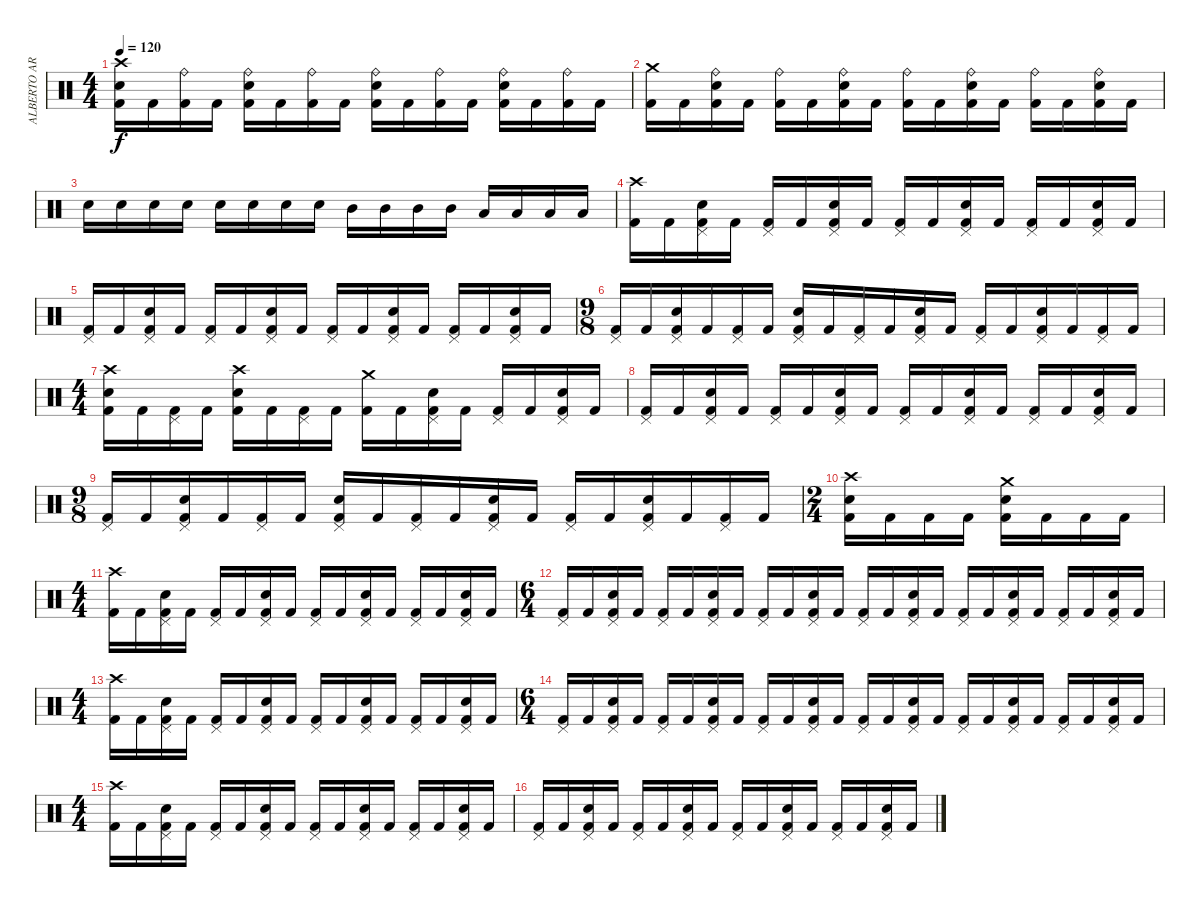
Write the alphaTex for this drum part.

\track ("ALBERTO ARDINES" "ALBERTO AR") {instrument percussion}
\staff {score}
\articulation defaults
\ts (4 4)
\tempo 120
\clef neutral
\ks c
("Crash high (hit)" "Electric Snare (hit)" "Kick (hit) 2").16{dy f} "Kick (hit) 2".16 ("Ride (bell)" "Kick (hit) 2").16 "Kick (hit) 2".16 ("Ride (bell)" "Electric Snare (hit)" "Kick (hit) 2").16 "Kick (hit) 2".16 ("Ride (bell)" "Kick (hit) 2").16 "Kick (hit) 2".16 ("Ride (bell)" "Electric Snare (hit)" "Kick (hit) 2").16 "Kick (hit) 2".16 ("Ride (bell)" "Kick (hit) 2").16 "Kick (hit) 2".16 ("Ride (bell)" "Electric Snare (hit)" "Kick (hit) 2").16 "Kick (hit) 2".16 ("Ride (bell)" "Kick (hit) 2").16 "Kick (hit) 2".16 |
("Crash medium (hit)" "Kick (hit) 2").16 "Kick (hit) 2".16 ("Ride (bell)" "Electric Snare (hit)" "Kick (hit) 2").16 "Kick (hit) 2".16 ("Ride (bell)" "Kick (hit) 2").16 "Kick (hit) 2".16 ("Ride (bell)" "Electric Snare (hit)" "Kick (hit) 2").16 "Kick (hit) 2".16 ("Ride (bell)" "Kick (hit) 2").16 "Kick (hit) 2".16 ("Ride (bell)" "Electric Snare (hit)" "Kick (hit) 2").16 "Kick (hit) 2".16 ("Ride (bell)" "Kick (hit) 2").16 "Kick (hit) 2".16 ("Ride (bell)" "Electric Snare (hit)" "Kick (hit) 2").16 "Kick (hit) 2".16 |
"Electric Snare (hit)".16 "Electric Snare (hit)".16 "Electric Snare (hit)".16 "Electric Snare (hit)".16 "Electric Snare (hit)".16 "Electric Snare (hit)".16 "Electric Snare (hit)".16 "Electric Snare (hit)".16 "Mid Tom (hit)".16 "Mid Tom (hit)".16 "Mid Tom (hit)".16 "Mid Tom (hit)".16 "Low Tom (hit)".16 "Low Tom (hit)".16 "Low Tom (hit)".16 "Low Tom (hit)".16 |
("Crash high (hit)" "Kick (hit) 2").16 "Kick (hit) 2".16 ("Pedal Hi-Hat (hit)" "Electric Snare (hit)" "Kick (hit) 2").16 "Kick (hit) 2".16 ("Pedal Hi-Hat (hit)" "Kick (hit) 2").16 "Kick (hit) 2".16 ("Pedal Hi-Hat (hit)" "Electric Snare (hit)" "Kick (hit) 2").16 "Kick (hit) 2".16 ("Pedal Hi-Hat (hit)" "Kick (hit) 2").16 "Kick (hit) 2".16 ("Pedal Hi-Hat (hit)" "Electric Snare (hit)" "Kick (hit) 2").16 "Kick (hit) 2".16 ("Pedal Hi-Hat (hit)" "Kick (hit) 2").16 "Kick (hit) 2".16 ("Pedal Hi-Hat (hit)" "Electric Snare (hit)" "Kick (hit) 2").16 "Kick (hit) 2".16 |
("Pedal Hi-Hat (hit)" "Kick (hit) 2").16 "Kick (hit) 2".16 ("Pedal Hi-Hat (hit)" "Electric Snare (hit)" "Kick (hit) 2").16 "Kick (hit) 2".16 ("Pedal Hi-Hat (hit)" "Kick (hit) 2").16 "Kick (hit) 2".16 ("Pedal Hi-Hat (hit)" "Electric Snare (hit)" "Kick (hit) 2").16 "Kick (hit) 2".16 ("Pedal Hi-Hat (hit)" "Kick (hit) 2").16 "Kick (hit) 2".16 ("Pedal Hi-Hat (hit)" "Electric Snare (hit)" "Kick (hit) 2").16 "Kick (hit) 2".16 ("Pedal Hi-Hat (hit)" "Kick (hit) 2").16 "Kick (hit) 2".16 ("Pedal Hi-Hat (hit)" "Electric Snare (hit)" "Kick (hit) 2").16 "Kick (hit) 2".16 |
\ts (9 8)
("Pedal Hi-Hat (hit)" "Kick (hit) 2").16 "Kick (hit) 2".16 ("Pedal Hi-Hat (hit)" "Electric Snare (hit)" "Kick (hit) 2").16 "Kick (hit) 2".16 ("Pedal Hi-Hat (hit)" "Kick (hit) 2").16 "Kick (hit) 2".16 ("Pedal Hi-Hat (hit)" "Electric Snare (hit)" "Kick (hit) 2").16 "Kick (hit) 2".16 ("Pedal Hi-Hat (hit)" "Kick (hit) 2").16 "Kick (hit) 2".16 ("Pedal Hi-Hat (hit)" "Electric Snare (hit)" "Kick (hit) 2").16 "Kick (hit) 2".16 ("Pedal Hi-Hat (hit)" "Kick (hit) 2").16 "Kick (hit) 2".16 ("Pedal Hi-Hat (hit)" "Electric Snare (hit)" "Kick (hit) 2").16 "Kick (hit) 2".16 ("Pedal Hi-Hat (hit)" "Kick (hit) 2").16 "Kick (hit) 2".16 |
\ts (4 4)
("Crash high (hit)" "Electric Snare (hit)" "Kick (hit) 2").16 "Kick (hit) 2".16 ("Pedal Hi-Hat (hit)" "Kick (hit) 2").16 "Kick (hit) 2".16 ("Crash high (hit)" "Electric Snare (hit)" "Kick (hit) 2").16 "Kick (hit) 2".16 ("Pedal Hi-Hat (hit)" "Kick (hit) 2").16 "Kick (hit) 2".16 ("Crash medium (hit)" "Kick (hit) 2").16 "Kick (hit) 2".16 ("Pedal Hi-Hat (hit)" "Electric Snare (hit)" "Kick (hit) 2").16 "Kick (hit) 2".16 ("Pedal Hi-Hat (hit)" "Kick (hit) 2").16 "Kick (hit) 2".16 ("Pedal Hi-Hat (hit)" "Electric Snare (hit)" "Kick (hit) 2").16 "Kick (hit) 2".16 |
("Pedal Hi-Hat (hit)" "Kick (hit) 2").16 "Kick (hit) 2".16 ("Pedal Hi-Hat (hit)" "Electric Snare (hit)" "Kick (hit) 2").16 "Kick (hit) 2".16 ("Pedal Hi-Hat (hit)" "Kick (hit) 2").16 "Kick (hit) 2".16 ("Pedal Hi-Hat (hit)" "Electric Snare (hit)" "Kick (hit) 2").16 "Kick (hit) 2".16 ("Pedal Hi-Hat (hit)" "Kick (hit) 2").16 "Kick (hit) 2".16 ("Pedal Hi-Hat (hit)" "Electric Snare (hit)" "Kick (hit) 2").16 "Kick (hit) 2".16 ("Pedal Hi-Hat (hit)" "Kick (hit) 2").16 "Kick (hit) 2".16 ("Pedal Hi-Hat (hit)" "Electric Snare (hit)" "Kick (hit) 2").16 "Kick (hit) 2".16 |
\ts (9 8)
("Pedal Hi-Hat (hit)" "Kick (hit) 2").16 "Kick (hit) 2".16 ("Pedal Hi-Hat (hit)" "Electric Snare (hit)" "Kick (hit) 2").16 "Kick (hit) 2".16 ("Pedal Hi-Hat (hit)" "Kick (hit) 2").16 "Kick (hit) 2".16 ("Pedal Hi-Hat (hit)" "Electric Snare (hit)" "Kick (hit) 2").16 "Kick (hit) 2".16 ("Pedal Hi-Hat (hit)" "Kick (hit) 2").16 "Kick (hit) 2".16 ("Pedal Hi-Hat (hit)" "Electric Snare (hit)" "Kick (hit) 2").16 "Kick (hit) 2".16 ("Pedal Hi-Hat (hit)" "Kick (hit) 2").16 "Kick (hit) 2".16 ("Pedal Hi-Hat (hit)" "Electric Snare (hit)" "Kick (hit) 2").16 "Kick (hit) 2".16 ("Pedal Hi-Hat (hit)" "Kick (hit) 2").16 "Kick (hit) 2".16 |
\ts (2 4)
("Crash high (hit)" "Electric Snare (hit)" "Kick (hit) 2").16 "Kick (hit) 2".16 "Kick (hit) 2".16 "Kick (hit) 2".16 ("Crash medium (hit)" "Electric Snare (hit)" "Kick (hit) 2").16 "Kick (hit) 2".16 "Kick (hit) 2".16 "Kick (hit) 2".16 |
\ts (4 4)
("Crash high (hit)" "Kick (hit) 2").16 "Kick (hit) 2".16 ("Pedal Hi-Hat (hit)" "Electric Snare (hit)" "Kick (hit) 2").16 "Kick (hit) 2".16 ("Pedal Hi-Hat (hit)" "Kick (hit) 2").16 "Kick (hit) 2".16 ("Pedal Hi-Hat (hit)" "Electric Snare (hit)" "Kick (hit) 2").16 "Kick (hit) 2".16 ("Pedal Hi-Hat (hit)" "Kick (hit) 2").16 "Kick (hit) 2".16 ("Pedal Hi-Hat (hit)" "Electric Snare (hit)" "Kick (hit) 2").16 "Kick (hit) 2".16 ("Pedal Hi-Hat (hit)" "Kick (hit) 2").16 "Kick (hit) 2".16 ("Pedal Hi-Hat (hit)" "Electric Snare (hit)" "Kick (hit) 2").16 "Kick (hit) 2".16 |
\ts (6 4)
("Pedal Hi-Hat (hit)" "Kick (hit) 2").16 "Kick (hit) 2".16 ("Pedal Hi-Hat (hit)" "Electric Snare (hit)" "Kick (hit) 2").16 "Kick (hit) 2".16 ("Pedal Hi-Hat (hit)" "Kick (hit) 2").16 "Kick (hit) 2".16 ("Pedal Hi-Hat (hit)" "Electric Snare (hit)" "Kick (hit) 2").16 "Kick (hit) 2".16 ("Pedal Hi-Hat (hit)" "Kick (hit) 2").16 "Kick (hit) 2".16 ("Pedal Hi-Hat (hit)" "Electric Snare (hit)" "Kick (hit) 2").16 "Kick (hit) 2".16 ("Pedal Hi-Hat (hit)" "Kick (hit) 2").16 "Kick (hit) 2".16 ("Pedal Hi-Hat (hit)" "Electric Snare (hit)" "Kick (hit) 2").16 "Kick (hit) 2".16 ("Pedal Hi-Hat (hit)" "Kick (hit) 2").16 "Kick (hit) 2".16 ("Pedal Hi-Hat (hit)" "Electric Snare (hit)" "Kick (hit) 2").16 "Kick (hit) 2".16 ("Pedal Hi-Hat (hit)" "Kick (hit) 2").16 "Kick (hit) 2".16 ("Pedal Hi-Hat (hit)" "Electric Snare (hit)" "Kick (hit) 2").16 "Kick (hit) 2".16 |
\ts (4 4)
("Crash high (hit)" "Kick (hit) 2").16 "Kick (hit) 2".16 ("Pedal Hi-Hat (hit)" "Electric Snare (hit)" "Kick (hit) 2").16 "Kick (hit) 2".16 ("Pedal Hi-Hat (hit)" "Kick (hit) 2").16 "Kick (hit) 2".16 ("Pedal Hi-Hat (hit)" "Electric Snare (hit)" "Kick (hit) 2").16 "Kick (hit) 2".16 ("Pedal Hi-Hat (hit)" "Kick (hit) 2").16 "Kick (hit) 2".16 ("Pedal Hi-Hat (hit)" "Electric Snare (hit)" "Kick (hit) 2").16 "Kick (hit) 2".16 ("Pedal Hi-Hat (hit)" "Kick (hit) 2").16 "Kick (hit) 2".16 ("Pedal Hi-Hat (hit)" "Electric Snare (hit)" "Kick (hit) 2").16 "Kick (hit) 2".16 |
\ts (6 4)
("Pedal Hi-Hat (hit)" "Kick (hit) 2").16 "Kick (hit) 2".16 ("Pedal Hi-Hat (hit)" "Electric Snare (hit)" "Kick (hit) 2").16 "Kick (hit) 2".16 ("Pedal Hi-Hat (hit)" "Kick (hit) 2").16 "Kick (hit) 2".16 ("Pedal Hi-Hat (hit)" "Electric Snare (hit)" "Kick (hit) 2").16 "Kick (hit) 2".16 ("Pedal Hi-Hat (hit)" "Kick (hit) 2").16 "Kick (hit) 2".16 ("Pedal Hi-Hat (hit)" "Electric Snare (hit)" "Kick (hit) 2").16 "Kick (hit) 2".16 ("Pedal Hi-Hat (hit)" "Kick (hit) 2").16 "Kick (hit) 2".16 ("Pedal Hi-Hat (hit)" "Electric Snare (hit)" "Kick (hit) 2").16 "Kick (hit) 2".16 ("Pedal Hi-Hat (hit)" "Kick (hit) 2").16 "Kick (hit) 2".16 ("Pedal Hi-Hat (hit)" "Electric Snare (hit)" "Kick (hit) 2").16 "Kick (hit) 2".16 ("Pedal Hi-Hat (hit)" "Kick (hit) 2").16 "Kick (hit) 2".16 ("Pedal Hi-Hat (hit)" "Electric Snare (hit)" "Kick (hit) 2").16 "Kick (hit) 2".16 |
\ts (4 4)
("Crash high (hit)" "Kick (hit) 2").16 "Kick (hit) 2".16 ("Pedal Hi-Hat (hit)" "Electric Snare (hit)" "Kick (hit) 2").16 "Kick (hit) 2".16 ("Pedal Hi-Hat (hit)" "Kick (hit) 2").16 "Kick (hit) 2".16 ("Pedal Hi-Hat (hit)" "Electric Snare (hit)" "Kick (hit) 2").16 "Kick (hit) 2".16 ("Pedal Hi-Hat (hit)" "Kick (hit) 2").16 "Kick (hit) 2".16 ("Pedal Hi-Hat (hit)" "Electric Snare (hit)" "Kick (hit) 2").16 "Kick (hit) 2".16 ("Pedal Hi-Hat (hit)" "Kick (hit) 2").16 "Kick (hit) 2".16 ("Pedal Hi-Hat (hit)" "Electric Snare (hit)" "Kick (hit) 2").16 "Kick (hit) 2".16 |
("Pedal Hi-Hat (hit)" "Kick (hit) 2").16 "Kick (hit) 2".16 ("Pedal Hi-Hat (hit)" "Electric Snare (hit)" "Kick (hit) 2").16 "Kick (hit) 2".16 ("Pedal Hi-Hat (hit)" "Kick (hit) 2").16 "Kick (hit) 2".16 ("Pedal Hi-Hat (hit)" "Electric Snare (hit)" "Kick (hit) 2").16 "Kick (hit) 2".16 ("Pedal Hi-Hat (hit)" "Kick (hit) 2").16 "Kick (hit) 2".16 ("Pedal Hi-Hat (hit)" "Electric Snare (hit)" "Kick (hit) 2").16 "Kick (hit) 2".16 ("Pedal Hi-Hat (hit)" "Kick (hit) 2").16 "Kick (hit) 2".16 ("Pedal Hi-Hat (hit)" "Electric Snare (hit)" "Kick (hit) 2").16 "Kick (hit) 2".16
